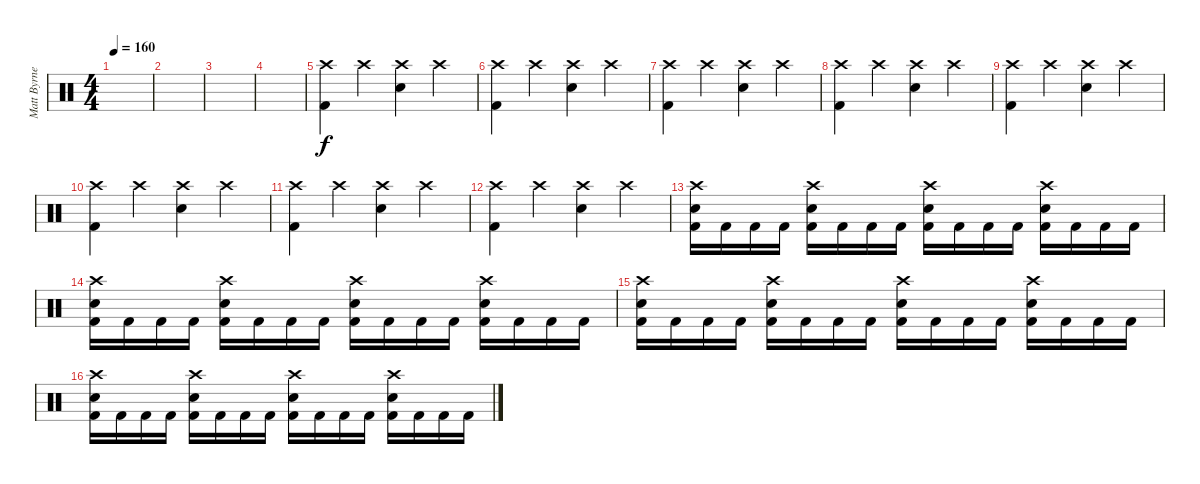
\track ("Matt Byrne" "Matt Byrne") {instrument percussion}
\staff {score}
\articulation defaults
\ts (4 4)
\tempo 160
\clef neutral
\ks c
|
|
|
|
\section ("" "")
("Crash high (hit)" "Kick (hit) 2").4 "Crash high (hit)".4 ("Crash high (hit)" "Snare (hit) 2").4 "Crash high (hit)".4 |
("Crash high (hit)" "Kick (hit) 2").4 "Crash high (hit)".4 ("Crash high (hit)" "Snare (hit) 2").4 "Crash high (hit)".4 |
("Crash high (hit)" "Kick (hit) 2").4 "Crash high (hit)".4 ("Crash high (hit)" "Snare (hit) 2").4 "Crash high (hit)".4 |
("Crash high (hit)" "Kick (hit) 2").4 "Crash high (hit)".4 ("Crash high (hit)" "Snare (hit) 2").4 "Crash high (hit)".4 |
("Crash high (hit)" "Kick (hit) 2").4 "Crash high (hit)".4 ("Crash high (hit)" "Snare (hit) 2").4 "Crash high (hit)".4 |
("Crash high (hit)" "Kick (hit) 2").4 "Crash high (hit)".4 ("Crash high (hit)" "Snare (hit) 2").4 "Crash high (hit)".4 |
("Crash high (hit)" "Kick (hit) 2").4 "Crash high (hit)".4 ("Crash high (hit)" "Snare (hit) 2").4 "Crash high (hit)".4 |
("Crash high (hit)" "Kick (hit) 2").4 "Crash high (hit)".4 ("Crash high (hit)" "Snare (hit) 2").4 "Crash high (hit)".4 |
\section ("" "")
("Kick (hit) 2" "Crash high (hit)" "Snare (hit) 2").16 "Kick (hit) 2".16 "Kick (hit) 2".16 "Kick (hit) 2".16 ("Kick (hit) 2" "Crash high (hit)" "Snare (hit) 2").16 "Kick (hit) 2".16 "Kick (hit) 2".16 "Kick (hit) 2".16 ("Kick (hit) 2" "Crash high (hit)" "Snare (hit) 2").16 "Kick (hit) 2".16 "Kick (hit) 2".16 "Kick (hit) 2".16 ("Kick (hit) 2" "Crash high (hit)" "Snare (hit) 2").16 "Kick (hit) 2".16 "Kick (hit) 2".16 "Kick (hit) 2".16 |
("Kick (hit) 2" "Crash high (hit)" "Snare (hit) 2").16 "Kick (hit) 2".16 "Kick (hit) 2".16 "Kick (hit) 2".16 ("Kick (hit) 2" "Crash high (hit)" "Snare (hit) 2").16 "Kick (hit) 2".16 "Kick (hit) 2".16 "Kick (hit) 2".16 ("Kick (hit) 2" "Crash high (hit)" "Snare (hit) 2").16 "Kick (hit) 2".16 "Kick (hit) 2".16 "Kick (hit) 2".16 ("Kick (hit) 2" "Crash high (hit)" "Snare (hit) 2").16 "Kick (hit) 2".16 "Kick (hit) 2".16 "Kick (hit) 2".16 |
("Kick (hit) 2" "Crash high (hit)" "Snare (hit) 2").16 "Kick (hit) 2".16 "Kick (hit) 2".16 "Kick (hit) 2".16 ("Kick (hit) 2" "Crash high (hit)" "Snare (hit) 2").16 "Kick (hit) 2".16 "Kick (hit) 2".16 "Kick (hit) 2".16 ("Kick (hit) 2" "Crash high (hit)" "Snare (hit) 2").16 "Kick (hit) 2".16 "Kick (hit) 2".16 "Kick (hit) 2".16 ("Kick (hit) 2" "Crash high (hit)" "Snare (hit) 2").16 "Kick (hit) 2".16 "Kick (hit) 2".16 "Kick (hit) 2".16 |
("Kick (hit) 2" "Crash high (hit)" "Snare (hit) 2").16 "Kick (hit) 2".16 "Kick (hit) 2".16 "Kick (hit) 2".16 ("Kick (hit) 2" "Crash high (hit)" "Snare (hit) 2").16 "Kick (hit) 2".16 "Kick (hit) 2".16 "Kick (hit) 2".16 ("Kick (hit) 2" "Crash high (hit)" "Snare (hit) 2").16 "Kick (hit) 2".16 "Kick (hit) 2".16 "Kick (hit) 2".16 ("Kick (hit) 2" "Crash high (hit)" "Snare (hit) 2").16 "Kick (hit) 2".16 "Kick (hit) 2".16 "Kick (hit) 2".16
